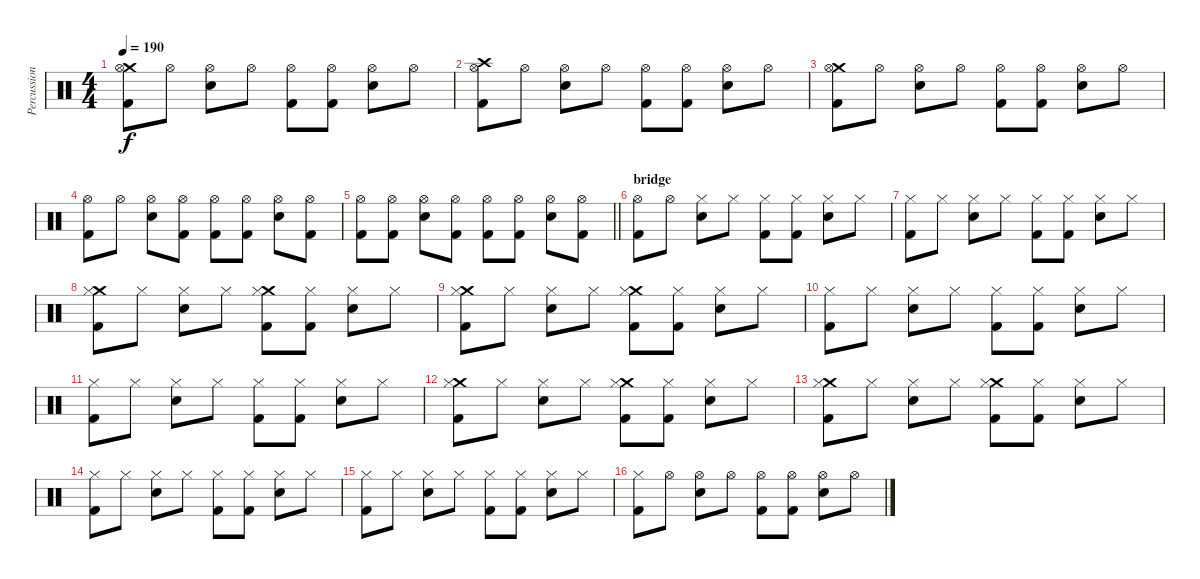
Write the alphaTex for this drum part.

\track ("Percussion" "Percussion") {instrument percussion}
\staff {score}
\articulation defaults
\ts (4 4)
\tempo 190
\clef neutral
\ks c
("Crash medium (hit)" "Hi-Hat (open)" "Kick (hit) 2").8{dy f} "Hi-Hat (open)".8 ("Hi-Hat (open)" "Snare (hit) 2").8 "Hi-Hat (open)".8 ("Hi-Hat (open)" "Kick (hit) 2").8 ("Hi-Hat (open)" "Kick (hit) 2").8 ("Hi-Hat (open)" "Snare (hit) 2").8 "Hi-Hat (open)".8 |
("Crash high (hit)" "Hi-Hat (open)" "Kick (hit) 2").8 "Hi-Hat (open)".8 ("Hi-Hat (open)" "Snare (hit) 2").8 "Hi-Hat (open)".8 ("Hi-Hat (open)" "Kick (hit) 2").8 ("Hi-Hat (open)" "Kick (hit) 2").8 ("Hi-Hat (open)" "Snare (hit) 2").8 "Hi-Hat (open)".8 |
("Crash medium (hit)" "Hi-Hat (open)" "Kick (hit) 2").8 "Hi-Hat (open)".8 ("Hi-Hat (open)" "Snare (hit) 2").8 "Hi-Hat (open)".8 ("Hi-Hat (open)" "Kick (hit) 2").8 ("Hi-Hat (open)" "Kick (hit) 2").8 ("Hi-Hat (open)" "Snare (hit) 2").8 "Hi-Hat (open)".8 |
("Hi-Hat (open)" "Kick (hit) 2").8 "Hi-Hat (open)".8 ("Hi-Hat (open)" "Snare (hit) 2").8 ("Hi-Hat (open)" "Kick (hit) 2").8 ("Hi-Hat (open)" "Kick (hit) 2").8 ("Hi-Hat (open)" "Kick (hit) 2").8 ("Hi-Hat (open)" "Snare (hit) 2").8 ("Hi-Hat (open)" "Kick (hit) 2").8 |
\barLineRight lightlight
("Hi-Hat (open)" "Kick (hit) 2").8 ("Hi-Hat (open)" "Kick (hit) 2").8 ("Hi-Hat (open)" "Snare (hit) 2").8 ("Hi-Hat (open)" "Kick (hit) 2").8 ("Hi-Hat (open)" "Kick (hit) 2").8 ("Hi-Hat (open)" "Kick (hit) 2").8 ("Hi-Hat (open)" "Snare (hit) 2").8 ("Hi-Hat (open)" "Kick (hit) 2").8 |
\section ("" "bridge")
("Hi-Hat (open)" "Kick (hit) 2").8 "Hi-Hat (open)".8 ("Hi-Hat (closed)" "Snare (hit) 2").8 "Hi-Hat (closed)".8 ("Hi-Hat (closed)" "Kick (hit) 2").8 ("Hi-Hat (closed)" "Kick (hit) 2").8 ("Hi-Hat (closed)" "Snare (hit) 2").8 "Hi-Hat (closed)".8 |
("Hi-Hat (closed)" "Kick (hit) 2").8 "Hi-Hat (closed)".8 ("Hi-Hat (closed)" "Snare (hit) 2").8 "Hi-Hat (closed)".8 ("Hi-Hat (closed)" "Kick (hit) 2").8 ("Hi-Hat (closed)" "Kick (hit) 2").8 ("Hi-Hat (closed)" "Snare (hit) 2").8 "Hi-Hat (closed)".8 |
("Crash medium (hit)" "Hi-Hat (closed)" "Kick (hit) 2").8 "Hi-Hat (closed)".8 ("Hi-Hat (closed)" "Snare (hit) 2").8 "Hi-Hat (closed)".8 ("Crash medium (hit)" "Hi-Hat (closed)" "Kick (hit) 2").8 ("Hi-Hat (closed)" "Kick (hit) 2").8 ("Hi-Hat (closed)" "Snare (hit) 2").8 "Hi-Hat (closed)".8 |
("Crash medium (hit)" "Hi-Hat (closed)" "Kick (hit) 2").8 "Hi-Hat (closed)".8 ("Hi-Hat (closed)" "Snare (hit) 2").8 "Hi-Hat (closed)".8 ("Crash medium (hit)" "Hi-Hat (closed)" "Kick (hit) 2").8 ("Hi-Hat (closed)" "Kick (hit) 2").8 ("Hi-Hat (closed)" "Snare (hit) 2").8 "Hi-Hat (closed)".8 |
("Hi-Hat (closed)" "Kick (hit) 2").8 "Hi-Hat (closed)".8 ("Hi-Hat (closed)" "Snare (hit) 2").8 "Hi-Hat (closed)".8 ("Hi-Hat (closed)" "Kick (hit) 2").8 ("Hi-Hat (closed)" "Kick (hit) 2").8 ("Hi-Hat (closed)" "Snare (hit) 2").8 "Hi-Hat (closed)".8 |
("Hi-Hat (closed)" "Kick (hit) 2").8 "Hi-Hat (closed)".8 ("Hi-Hat (closed)" "Snare (hit) 2").8 "Hi-Hat (closed)".8 ("Hi-Hat (closed)" "Kick (hit) 2").8 ("Hi-Hat (closed)" "Kick (hit) 2").8 ("Hi-Hat (closed)" "Snare (hit) 2").8 "Hi-Hat (closed)".8 |
("Crash medium (hit)" "Hi-Hat (closed)" "Kick (hit) 2").8 "Hi-Hat (closed)".8 ("Hi-Hat (closed)" "Snare (hit) 2").8 "Hi-Hat (closed)".8 ("Crash medium (hit)" "Hi-Hat (closed)" "Kick (hit) 2").8 ("Hi-Hat (closed)" "Kick (hit) 2").8 ("Hi-Hat (closed)" "Snare (hit) 2").8 "Hi-Hat (closed)".8 |
("Crash medium (hit)" "Hi-Hat (closed)" "Kick (hit) 2").8 "Hi-Hat (closed)".8 ("Hi-Hat (closed)" "Snare (hit) 2").8 "Hi-Hat (closed)".8 ("Crash medium (hit)" "Hi-Hat (closed)" "Kick (hit) 2").8 ("Hi-Hat (closed)" "Kick (hit) 2").8 ("Hi-Hat (closed)" "Snare (hit) 2").8 "Hi-Hat (closed)".8 |
("Hi-Hat (closed)" "Kick (hit) 2").8 "Hi-Hat (closed)".8 ("Hi-Hat (closed)" "Snare (hit) 2").8 "Hi-Hat (closed)".8 ("Hi-Hat (closed)" "Kick (hit) 2").8 ("Hi-Hat (closed)" "Kick (hit) 2").8 ("Hi-Hat (closed)" "Snare (hit) 2").8 "Hi-Hat (closed)".8 |
("Hi-Hat (closed)" "Kick (hit) 2").8 "Hi-Hat (closed)".8 ("Hi-Hat (closed)" "Snare (hit) 2").8 "Hi-Hat (closed)".8 ("Hi-Hat (closed)" "Kick (hit) 2").8 ("Hi-Hat (closed)" "Kick (hit) 2").8 ("Hi-Hat (closed)" "Snare (hit) 2").8 "Hi-Hat (closed)".8 |
("Hi-Hat (closed)" "Kick (hit) 2").8 "Hi-Hat (open)".8 ("Hi-Hat (open)" "Snare (hit) 2").8 "Hi-Hat (open)".8 ("Hi-Hat (open)" "Kick (hit) 2").8 ("Hi-Hat (open)" "Kick (hit) 2").8 ("Hi-Hat (open)" "Snare (hit) 2").8 "Hi-Hat (open)".8
